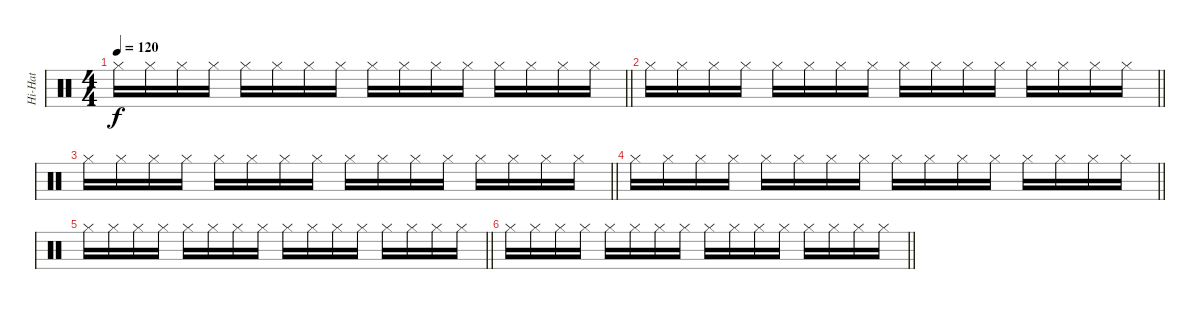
\track ("Hi-Hat" "Hi-Hat") {instrument percussion}
\staff {score}
\articulation defaults
\ts (4 4)
\tempo 120
\clef neutral
\barLineRight lightlight
\ks c "Hi-Hat (closed)".16{dy f} "Hi-Hat (closed)".16 "Hi-Hat (closed)".16 "Hi-Hat (closed)".16 "Hi-Hat (closed)".16 "Hi-Hat (closed)".16 "Hi-Hat (closed)".16 "Hi-Hat (closed)".16 "Hi-Hat (closed)".16 "Hi-Hat (closed)".16 "Hi-Hat (closed)".16 "Hi-Hat (closed)".16 "Hi-Hat (closed)".16 "Hi-Hat (closed)".16 "Hi-Hat (closed)".16 "Hi-Hat (closed)".16
|
\barLineRight lightlight "Hi-Hat (closed)".16 "Hi-Hat (closed)".16 "Hi-Hat (closed)".16 "Hi-Hat (closed)".16 "Hi-Hat (closed)".16 "Hi-Hat (closed)".16 "Hi-Hat (closed)".16 "Hi-Hat (closed)".16 "Hi-Hat (closed)".16 "Hi-Hat (closed)".16 "Hi-Hat (closed)".16 "Hi-Hat (closed)".16 "Hi-Hat (closed)".16 "Hi-Hat (closed)".16 "Hi-Hat (closed)".16 "Hi-Hat (closed)".16
|
\barLineRight lightlight "Hi-Hat (closed)".16 "Hi-Hat (closed)".16 "Hi-Hat (closed)".16 "Hi-Hat (closed)".16 "Hi-Hat (closed)".16 "Hi-Hat (closed)".16 "Hi-Hat (closed)".16 "Hi-Hat (closed)".16 "Hi-Hat (closed)".16 "Hi-Hat (closed)".16 "Hi-Hat (closed)".16 "Hi-Hat (closed)".16 "Hi-Hat (closed)".16 "Hi-Hat (closed)".16 "Hi-Hat (closed)".16 "Hi-Hat (closed)".16
|
\barLineRight lightlight "Hi-Hat (closed)".16 "Hi-Hat (closed)".16 "Hi-Hat (closed)".16 "Hi-Hat (closed)".16 "Hi-Hat (closed)".16 "Hi-Hat (closed)".16 "Hi-Hat (closed)".16 "Hi-Hat (closed)".16 "Hi-Hat (closed)".16 "Hi-Hat (closed)".16 "Hi-Hat (closed)".16 "Hi-Hat (closed)".16 "Hi-Hat (closed)".16 "Hi-Hat (closed)".16 "Hi-Hat (closed)".16 "Hi-Hat (closed)".16
|
\barLineRight lightlight "Hi-Hat (closed)".16 "Hi-Hat (closed)".16 "Hi-Hat (closed)".16 "Hi-Hat (closed)".16 "Hi-Hat (closed)".16 "Hi-Hat (closed)".16 "Hi-Hat (closed)".16 "Hi-Hat (closed)".16 "Hi-Hat (closed)".16 "Hi-Hat (closed)".16 "Hi-Hat (closed)".16 "Hi-Hat (closed)".16 "Hi-Hat (closed)".16 "Hi-Hat (closed)".16 "Hi-Hat (closed)".16 "Hi-Hat (closed)".16
|
\barLineRight lightlight "Hi-Hat (closed)".16 "Hi-Hat (closed)".16 "Hi-Hat (closed)".16 "Hi-Hat (closed)".16 "Hi-Hat (closed)".16 "Hi-Hat (closed)".16 "Hi-Hat (closed)".16 "Hi-Hat (closed)".16 "Hi-Hat (closed)".16 "Hi-Hat (closed)".16 "Hi-Hat (closed)".16 "Hi-Hat (closed)".16 "Hi-Hat (closed)".16 "Hi-Hat (closed)".16 "Hi-Hat (closed)".16 "Hi-Hat (closed)".16
